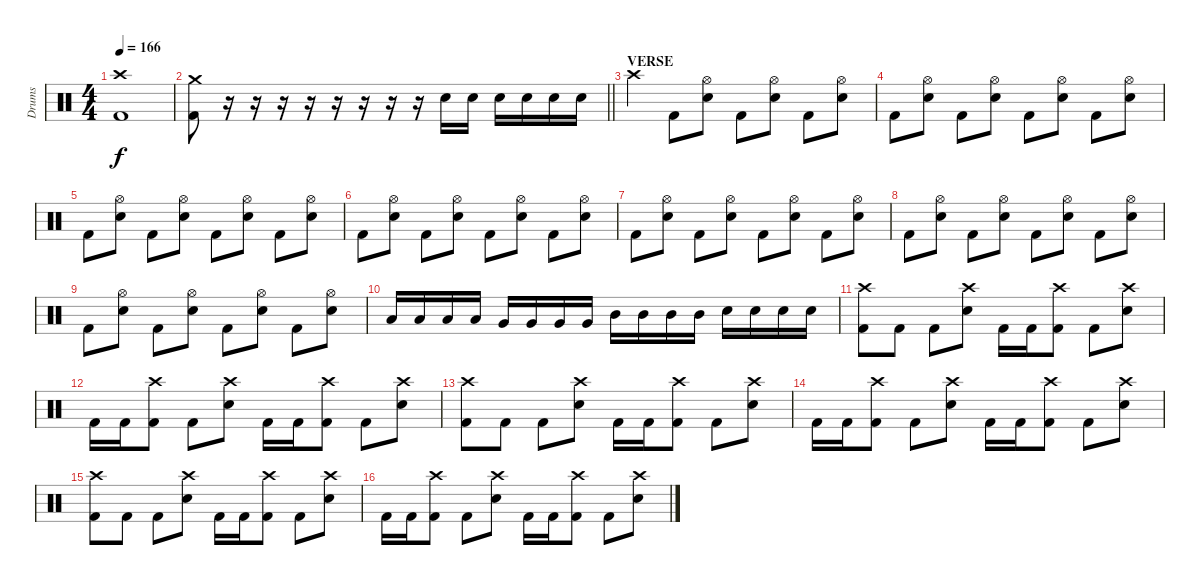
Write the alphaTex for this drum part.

\track ("Drums" "Drums") {instrument percussion}
\staff {score}
\articulation defaults
\ts (4 4)
\tempo 166
\clef neutral
\ks c
("Crash high (hit)" "Kick (hit) 2").1{dy f} |
\barLineRight lightlight
("Crash medium (hit)" "Kick (hit) 2").8 r.16 r.16 r.16 r.16 r.16 r.16 r.16 r.16 "Snare (hit) 2".16 "Snare (hit) 2".16 "Snare (hit) 2".16 "Snare (hit) 2".16 "Snare (hit) 2".16 "Snare (hit) 2".16 |
\section ("" "VERSE")
"Crash high (hit)".4 "Kick (hit) 2".8 ("Hi-Hat (open)" "Snare (hit) 2").8 "Kick (hit) 2".8 ("Hi-Hat (open)" "Snare (hit) 2").8 "Kick (hit) 2".8 ("Hi-Hat (open)" "Snare (hit) 2").8 |
"Kick (hit) 2".8 ("Hi-Hat (open)" "Snare (hit) 2").8 "Kick (hit) 2".8 ("Hi-Hat (open)" "Snare (hit) 2").8 "Kick (hit) 2".8 ("Hi-Hat (open)" "Snare (hit) 2").8 "Kick (hit) 2".8 ("Hi-Hat (open)" "Snare (hit) 2").8 |
"Kick (hit) 2".8 ("Hi-Hat (open)" "Snare (hit) 2").8 "Kick (hit) 2".8 ("Hi-Hat (open)" "Snare (hit) 2").8 "Kick (hit) 2".8 ("Hi-Hat (open)" "Snare (hit) 2").8 "Kick (hit) 2".8 ("Hi-Hat (open)" "Snare (hit) 2").8 |
"Kick (hit) 2".8 ("Hi-Hat (open)" "Snare (hit) 2").8 "Kick (hit) 2".8 ("Hi-Hat (open)" "Snare (hit) 2").8 "Kick (hit) 2".8 ("Hi-Hat (open)" "Snare (hit) 2").8 "Kick (hit) 2".8 ("Hi-Hat (open)" "Snare (hit) 2").8 |
"Kick (hit) 2".8 ("Hi-Hat (open)" "Snare (hit) 2").8 "Kick (hit) 2".8 ("Hi-Hat (open)" "Snare (hit) 2").8 "Kick (hit) 2".8 ("Hi-Hat (open)" "Snare (hit) 2").8 "Kick (hit) 2".8 ("Hi-Hat (open)" "Snare (hit) 2").8 |
"Kick (hit) 2".8 ("Hi-Hat (open)" "Snare (hit) 2").8 "Kick (hit) 2".8 ("Hi-Hat (open)" "Snare (hit) 2").8 "Kick (hit) 2".8 ("Hi-Hat (open)" "Snare (hit) 2").8 "Kick (hit) 2".8 ("Hi-Hat (open)" "Snare (hit) 2").8 |
"Kick (hit) 2".8 ("Hi-Hat (open)" "Snare (hit) 2").8 "Kick (hit) 2".8 ("Hi-Hat (open)" "Snare (hit) 2").8 "Kick (hit) 2".8 ("Hi-Hat (open)" "Snare (hit) 2").8 "Kick (hit) 2".8 ("Hi-Hat (open)" "Snare (hit) 2").8 |
"Low Tom (hit)".16 "Low Tom (hit)".16 "Low Tom (hit)".16 "Low Tom (hit)".16 "Very Low Tom (hit)".16 "Very Low Tom (hit)".16 "Very Low Tom (hit)".16 "Very Low Tom (hit)".16 "Mid Tom (hit)".16 "Mid Tom (hit)".16 "Mid Tom (hit)".16 "Mid Tom (hit)".16 "Snare (hit) 2".16 "Snare (hit) 2".16 "Snare (hit) 2".16 "Snare (hit) 2".16 |
("Crash high (hit)" "Kick (hit) 2").8 "Kick (hit) 2".8 "Kick (hit) 2".8 ("Crash high (hit)" "Snare (hit) 2").8 "Kick (hit) 2".16 "Kick (hit) 2".16 ("Crash high (hit)" "Kick (hit) 2").8 "Kick (hit) 2".8 ("Crash high (hit)" "Snare (hit) 2").8 |
"Kick (hit) 2".16 "Kick (hit) 2".16 ("Crash high (hit)" "Kick (hit) 2").8 "Kick (hit) 2".8 ("Crash high (hit)" "Snare (hit) 2").8 "Kick (hit) 2".16 "Kick (hit) 2".16 ("Crash high (hit)" "Kick (hit) 2").8 "Kick (hit) 2".8 ("Crash high (hit)" "Snare (hit) 2").8 |
("Crash high (hit)" "Kick (hit) 2").8 "Kick (hit) 2".8 "Kick (hit) 2".8 ("Crash high (hit)" "Snare (hit) 2").8 "Kick (hit) 2".16 "Kick (hit) 2".16 ("Crash high (hit)" "Kick (hit) 2").8 "Kick (hit) 2".8 ("Crash high (hit)" "Snare (hit) 2").8 |
"Kick (hit) 2".16 "Kick (hit) 2".16 ("Crash high (hit)" "Kick (hit) 2").8 "Kick (hit) 2".8 ("Crash high (hit)" "Snare (hit) 2").8 "Kick (hit) 2".16 "Kick (hit) 2".16 ("Crash high (hit)" "Kick (hit) 2").8 "Kick (hit) 2".8 ("Crash high (hit)" "Snare (hit) 2").8 |
("Crash high (hit)" "Kick (hit) 2").8 "Kick (hit) 2".8 "Kick (hit) 2".8 ("Crash high (hit)" "Snare (hit) 2").8 "Kick (hit) 2".16 "Kick (hit) 2".16 ("Crash high (hit)" "Kick (hit) 2").8 "Kick (hit) 2".8 ("Crash high (hit)" "Snare (hit) 2").8 |
"Kick (hit) 2".16 "Kick (hit) 2".16 ("Crash high (hit)" "Kick (hit) 2").8 "Kick (hit) 2".8 ("Crash high (hit)" "Snare (hit) 2").8 "Kick (hit) 2".16 "Kick (hit) 2".16 ("Crash high (hit)" "Kick (hit) 2").8 "Kick (hit) 2".8 ("Crash high (hit)" "Snare (hit) 2").8
